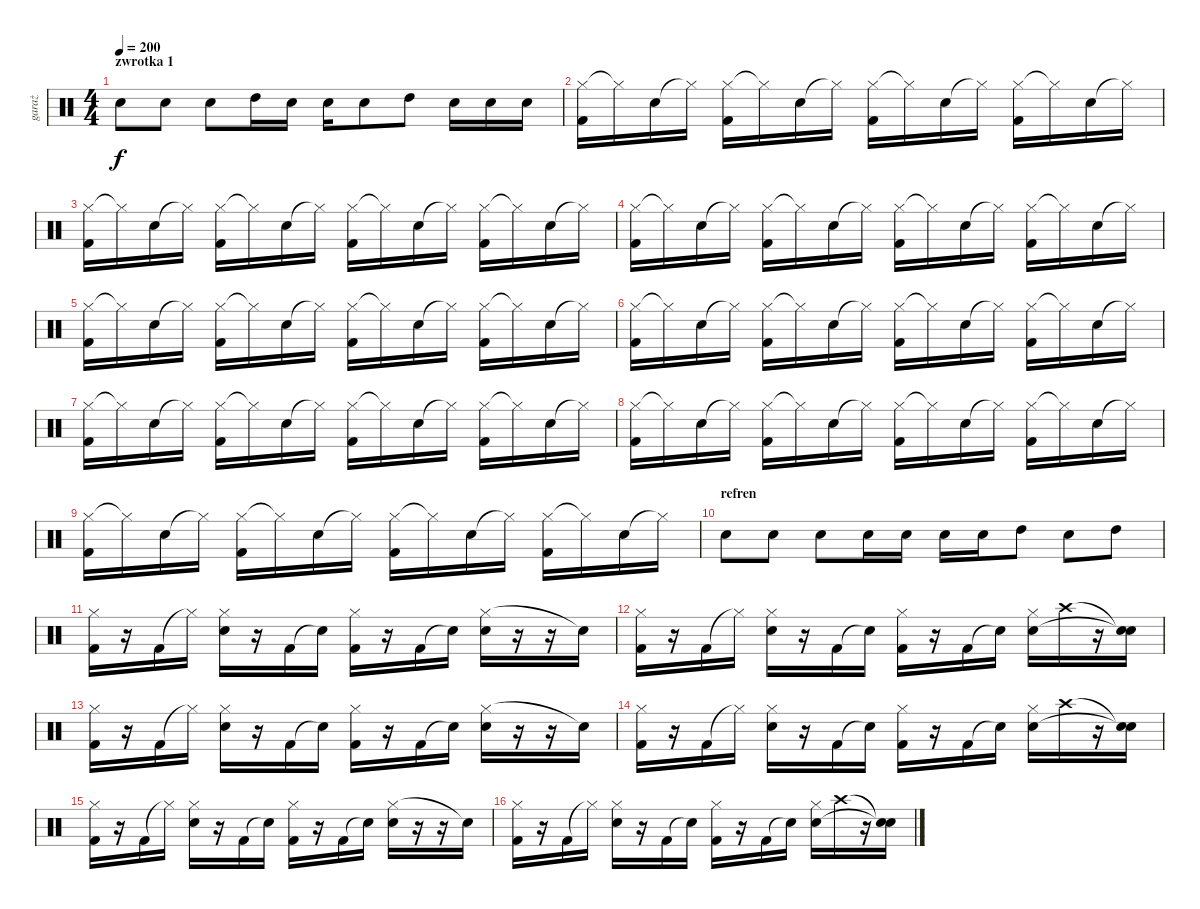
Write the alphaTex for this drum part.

\track ("garaż" "garaż") {instrument percussion}
\staff {score}
\articulation defaults
\ts (4 4)
\section ("" "zwrotka 1")
\tempo 200
\clef neutral
\ks c "Snare (hit) 2".8{dy f} "Snare (hit) 2".8 "Snare (hit) 2".8 "High Tom (hit)".16 "Snare (hit) 2".16 "Snare (hit) 2".16 "Snare (hit) 2".8 "High Tom (hit)".8 "Snare (hit) 2".16 "Snare (hit) 2".16 "Snare (hit) 2".16
|
("Hi-Hat (closed)" "Kick (hit) 2").16 "Hi-Hat (closed)"{t}.16 "Snare (hit) 2".16 "Hi-Hat (closed)"{t}.16 ("Hi-Hat (closed)" "Kick (hit) 2").16 "Hi-Hat (closed)"{t}.16 "Snare (hit) 2".16 "Hi-Hat (closed)"{t}.16 ("Hi-Hat (closed)" "Kick (hit) 2").16 "Hi-Hat (closed)"{t}.16 "Snare (hit) 2".16 "Hi-Hat (closed)"{t}.16 ("Hi-Hat (closed)" "Kick (hit) 2").16 "Hi-Hat (closed)"{t}.16 "Snare (hit) 2".16 "Hi-Hat (closed)"{t}.16 |
("Hi-Hat (closed)" "Kick (hit) 2").16 "Hi-Hat (closed)"{t}.16 "Snare (hit) 2".16 "Hi-Hat (closed)"{t}.16 ("Hi-Hat (closed)" "Kick (hit) 2").16 "Hi-Hat (closed)"{t}.16 "Snare (hit) 2".16 "Hi-Hat (closed)"{t}.16 ("Hi-Hat (closed)" "Kick (hit) 2").16 "Hi-Hat (closed)"{t}.16 "Snare (hit) 2".16 "Hi-Hat (closed)"{t}.16 ("Hi-Hat (closed)" "Kick (hit) 2").16 "Hi-Hat (closed)"{t}.16 "Snare (hit) 2".16 "Hi-Hat (closed)"{t}.16 |
("Hi-Hat (closed)" "Kick (hit) 2").16 "Hi-Hat (closed)"{t}.16 "Snare (hit) 2".16 "Hi-Hat (closed)"{t}.16 ("Hi-Hat (closed)" "Kick (hit) 2").16 "Hi-Hat (closed)"{t}.16 "Snare (hit) 2".16 "Hi-Hat (closed)"{t}.16 ("Hi-Hat (closed)" "Kick (hit) 2").16 "Hi-Hat (closed)"{t}.16 "Snare (hit) 2".16 "Hi-Hat (closed)"{t}.16 ("Hi-Hat (closed)" "Kick (hit) 2").16 "Hi-Hat (closed)"{t}.16 "Snare (hit) 2".16 "Hi-Hat (closed)"{t}.16 |
("Hi-Hat (closed)" "Kick (hit) 2").16 "Hi-Hat (closed)"{t}.16 "Snare (hit) 2".16 "Hi-Hat (closed)"{t}.16 ("Hi-Hat (closed)" "Kick (hit) 2").16 "Hi-Hat (closed)"{t}.16 "Snare (hit) 2".16 "Hi-Hat (closed)"{t}.16 ("Hi-Hat (closed)" "Kick (hit) 2").16 "Hi-Hat (closed)"{t}.16 "Snare (hit) 2".16 "Hi-Hat (closed)"{t}.16 ("Hi-Hat (closed)" "Kick (hit) 2").16 "Hi-Hat (closed)"{t}.16 "Snare (hit) 2".16 "Hi-Hat (closed)"{t}.16 |
("Hi-Hat (closed)" "Kick (hit) 2").16 "Hi-Hat (closed)"{t}.16 "Snare (hit) 2".16 "Hi-Hat (closed)"{t}.16 ("Hi-Hat (closed)" "Kick (hit) 2").16 "Hi-Hat (closed)"{t}.16 "Snare (hit) 2".16 "Hi-Hat (closed)"{t}.16 ("Hi-Hat (closed)" "Kick (hit) 2").16 "Hi-Hat (closed)"{t}.16 "Snare (hit) 2".16 "Hi-Hat (closed)"{t}.16 ("Hi-Hat (closed)" "Kick (hit) 2").16 "Hi-Hat (closed)"{t}.16 "Snare (hit) 2".16 "Hi-Hat (closed)"{t}.16 |
("Hi-Hat (closed)" "Kick (hit) 2").16 "Hi-Hat (closed)"{t}.16 "Snare (hit) 2".16 "Hi-Hat (closed)"{t}.16 ("Hi-Hat (closed)" "Kick (hit) 2").16 "Hi-Hat (closed)"{t}.16 "Snare (hit) 2".16 "Hi-Hat (closed)"{t}.16 ("Hi-Hat (closed)" "Kick (hit) 2").16 "Hi-Hat (closed)"{t}.16 "Snare (hit) 2".16 "Hi-Hat (closed)"{t}.16 ("Hi-Hat (closed)" "Kick (hit) 2").16 "Hi-Hat (closed)"{t}.16 "Snare (hit) 2".16 "Hi-Hat (closed)"{t}.16 |
("Hi-Hat (closed)" "Kick (hit) 2").16 "Hi-Hat (closed)"{t}.16 "Snare (hit) 2".16 "Hi-Hat (closed)"{t}.16 ("Hi-Hat (closed)" "Kick (hit) 2").16 "Hi-Hat (closed)"{t}.16 "Snare (hit) 2".16 "Hi-Hat (closed)"{t}.16 ("Hi-Hat (closed)" "Kick (hit) 2").16 "Hi-Hat (closed)"{t}.16 "Snare (hit) 2".16 "Hi-Hat (closed)"{t}.16 ("Hi-Hat (closed)" "Kick (hit) 2").16 "Hi-Hat (closed)"{t}.16 "Snare (hit) 2".16 "Hi-Hat (closed)"{t}.16 |
("Hi-Hat (closed)" "Kick (hit) 2").16 "Hi-Hat (closed)"{t}.16 "Snare (hit) 2".16 "Hi-Hat (closed)"{t}.16 ("Hi-Hat (closed)" "Kick (hit) 2").16 "Hi-Hat (closed)"{t}.16 "Snare (hit) 2".16 "Hi-Hat (closed)"{t}.16 ("Hi-Hat (closed)" "Kick (hit) 2").16 "Hi-Hat (closed)"{t}.16 "Snare (hit) 2".16 "Hi-Hat (closed)"{t}.16 ("Hi-Hat (closed)" "Kick (hit) 2").16 "Hi-Hat (closed)"{t}.16 "Snare (hit) 2".16 "Hi-Hat (closed)"{t}.16 |
\section ("" "refren")
"Snare (hit) 2".8 "Snare (hit) 2".8 "Snare (hit) 2".8 "Snare (hit) 2".16 "Snare (hit) 2".16 "Snare (hit) 2".16 "Snare (hit) 2".16 "High Tom (hit)".8 "Snare (hit) 2".8 "High Tom (hit)".8 |
("Hi-Hat (closed)" "Kick (hit) 2").16 r.16 "Kick (hit) 2".16 "Hi-Hat (closed)"{t}.16 ("Hi-Hat (closed)" "Snare (hit) 2").16 r.16 "Kick (hit) 2".16 "Snare (hit)"{t}.16 ("Hi-Hat (closed)" "Kick (hit) 2").16 r.16 "Kick (hit) 2".16 "Snare (hit)"{t}.16 ("Hi-Hat (closed)" "Snare (hit) 2").16 r.16 r.16 "Snare (hit)"{t}.16 |
("Hi-Hat (closed)" "Kick (hit) 2").16 r.16 "Kick (hit) 2".16 "Hi-Hat (closed)"{t}.16 ("Hi-Hat (closed)" "Snare (hit) 2").16 r.16 "Kick (hit) 2".16 "Snare (hit)"{t}.16 ("Hi-Hat (closed)" "Kick (hit) 2").16 r.16 "Kick (hit) 2".16 "Snare (hit)"{t}.16 ("Hi-Hat (closed)" "Snare (hit) 2").16 "Crash high (hit)".16 r.16 ("Snare (hit)"{t} "Snare (hit)"{t}).16 |
("Hi-Hat (closed)" "Kick (hit) 2").16 r.16 "Kick (hit) 2".16 "Hi-Hat (closed)"{t}.16 ("Hi-Hat (closed)" "Snare (hit) 2").16 r.16 "Kick (hit) 2".16 "Snare (hit)"{t}.16 ("Hi-Hat (closed)" "Kick (hit) 2").16 r.16 "Kick (hit) 2".16 "Snare (hit)"{t}.16 ("Hi-Hat (closed)" "Snare (hit) 2").16 r.16 r.16 "Snare (hit)"{t}.16 |
("Hi-Hat (closed)" "Kick (hit) 2").16 r.16 "Kick (hit) 2".16 "Hi-Hat (closed)"{t}.16 ("Hi-Hat (closed)" "Snare (hit) 2").16 r.16 "Kick (hit) 2".16 "Snare (hit)"{t}.16 ("Hi-Hat (closed)" "Kick (hit) 2").16 r.16 "Kick (hit) 2".16 "Snare (hit)"{t}.16 ("Hi-Hat (closed)" "Snare (hit) 2").16 "Crash high (hit)".16 r.16 ("Snare (hit)"{t} "Snare (hit)"{t}).16 |
("Hi-Hat (closed)" "Kick (hit) 2").16 r.16 "Kick (hit) 2".16 "Hi-Hat (closed)"{t}.16 ("Hi-Hat (closed)" "Snare (hit) 2").16 r.16 "Kick (hit) 2".16 "Snare (hit)"{t}.16 ("Hi-Hat (closed)" "Kick (hit) 2").16 r.16 "Kick (hit) 2".16 "Snare (hit)"{t}.16 ("Hi-Hat (closed)" "Snare (hit) 2").16 r.16 r.16 "Snare (hit)"{t}.16 |
("Hi-Hat (closed)" "Kick (hit) 2").16 r.16 "Kick (hit) 2".16 "Hi-Hat (closed)"{t}.16 ("Hi-Hat (closed)" "Snare (hit) 2").16 r.16 "Kick (hit) 2".16 "Snare (hit)"{t}.16 ("Hi-Hat (closed)" "Kick (hit) 2").16 r.16 "Kick (hit) 2".16 "Snare (hit)"{t}.16 ("Hi-Hat (closed)" "Snare (hit) 2").16 "Crash high (hit)".16 r.16 ("Snare (hit)"{t} "Snare (hit)"{t}).16
